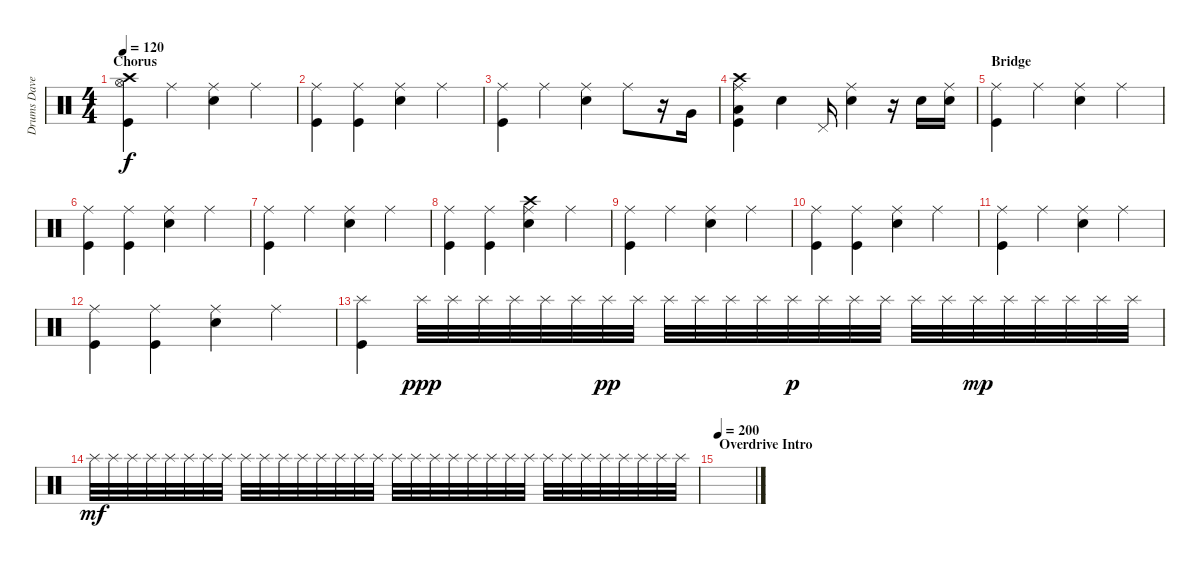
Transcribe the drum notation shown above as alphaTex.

\track ("Drums Dave Grohl" "Drums Dave") {instrument percussion}
\staff {score}
\articulation defaults
\ts (4 4)
\section ("" "Chorus")
\tempo 120
\clef neutral
\ks c
("Crash high (hit)" "Hi-Hat (open)" "Kick (hit)").4{dy f} "Ride (middle)".4 ("Ride (middle)" "Electric Snare (hit)").4 "Ride (middle)".4 |
("Ride (middle)" "Kick (hit)").4 ("Ride (middle)" "Kick (hit)").4 ("Ride (middle)" "Electric Snare (hit)").4 "Ride (middle)".4 |
("Ride (middle)" "Kick (hit)").4 "Ride (middle)".4 ("Ride (middle)" "Electric Snare (hit)").4 "Ride (middle)".8 r.16 "Very Low Tom (hit)".16 |
("Ride (middle)" "Crash high (hit)" "Low Tom (hit)" "Kick (hit)").4 "Electric Snare (hit)".4 "Pedal Hi-Hat (hit)".16 ("Ride (middle)" "Electric Snare (hit)").4 r.16 "Electric Snare (hit)".16 ("Ride (middle)" "Electric Snare (hit)").16 |
\section ("" "Bridge")
("Ride (middle)" "Kick (hit)").4 "Ride (middle)".4 ("Ride (middle)" "Electric Snare (hit)").4 "Ride (middle)".4 |
("Ride (middle)" "Kick (hit)").4 ("Ride (middle)" "Kick (hit)").4 ("Ride (middle)" "Electric Snare (hit)").4 "Ride (middle)".4 |
("Ride (middle)" "Kick (hit)").4 "Ride (middle)".4 ("Ride (middle)" "Electric Snare (hit)").4 "Ride (middle)".4 |
("Ride (middle)" "Kick (hit)").4 ("Ride (middle)" "Kick (hit)").4 ("Ride (middle)" "Crash high (hit)" "Electric Snare (hit)").4 "Ride (middle)".4 |
("Ride (middle)" "Kick (hit)").4 "Ride (middle)".4 ("Ride (middle)" "Electric Snare (hit)").4 "Ride (middle)".4 |
("Ride (middle)" "Kick (hit)").4 ("Ride (middle)" "Kick (hit)").4 ("Ride (middle)" "Electric Snare (hit)").4 "Ride (middle)".4 |
("Ride (middle)" "Kick (hit)").4 "Ride (middle)".4 ("Ride (middle)" "Electric Snare (hit)").4 "Ride (middle)".4 |
("Ride (middle)" "Kick (hit)").4 ("Ride (middle)" "Kick (hit)").4 ("Ride (middle)" "Electric Snare (hit)").4 "Ride (middle)".4 |
("Splash (hit)" "Kick (hit)").4 "Splash (hit)".32{dy ppp} "Splash (hit)".32 "Splash (hit)".32 "Splash (hit)".32 "Splash (hit)".32 "Splash (hit)".32 "Splash (hit)".32{dy pp} "Splash (hit)".32 "Splash (hit)".32 "Splash (hit)".32 "Splash (hit)".32 "Splash (hit)".32 "Splash (hit)".32{dy p} "Splash (hit)".32 "Splash (hit)".32 "Splash (hit)".32 "Splash (hit)".32 "Splash (hit)".32 "Splash (hit)".32{dy mp} "Splash (hit)".32 "Splash (hit)".32 "Splash (hit)".32 "Splash (hit)".32 "Splash (hit)".32 |
"Splash (hit)".32{dy mf} "Splash (hit)".32 "Splash (hit)".32 "Splash (hit)".32 "Splash (hit)".32 "Splash (hit)".32 "Splash (hit)".32 "Splash (hit)".32 "Splash (hit)".32 "Splash (hit)".32 "Splash (hit)".32 "Splash (hit)".32 "Splash (hit)".32 "Splash (hit)".32 "Splash (hit)".32 "Splash (hit)".32 "Splash (hit)".32 "Splash (hit)".32 "Splash (hit)".32 "Splash (hit)".32 "Splash (hit)".32 "Splash (hit)".32 "Splash (hit)".32 "Splash (hit)".32 "Splash (hit)".32 "Splash (hit)".32 "Splash (hit)".32 "Splash (hit)".32 "Splash (hit)".32 "Splash (hit)".32 "Splash (hit)".32 "Splash (hit)".32 |
\section ("" "Overdrive Intro")
\tempo 200
